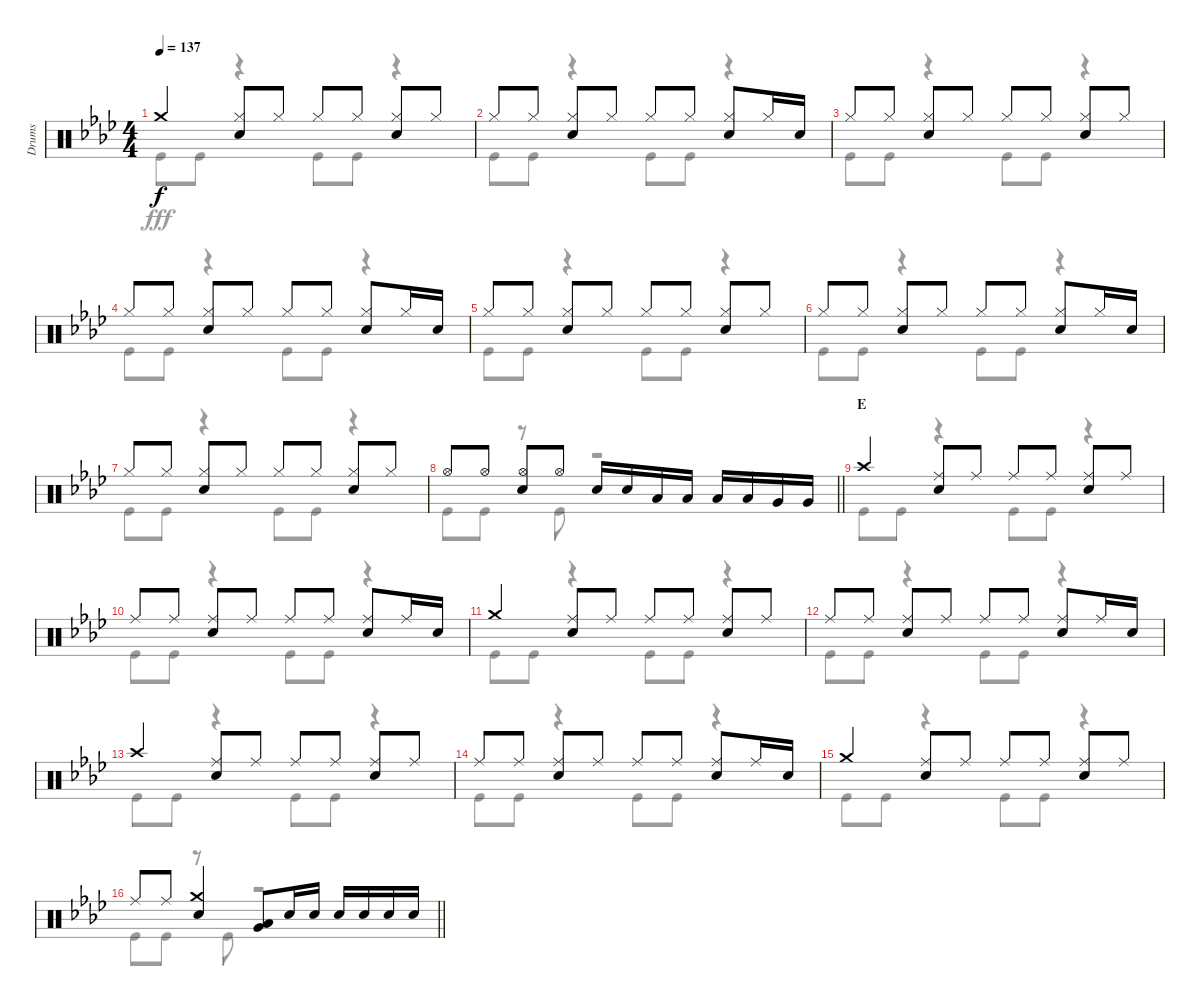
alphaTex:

\track ("Drums" "Drums") {instrument percussion}
\staff {score}
\articulation defaults
\voice
\ts (4 4)
\tempo 137
\clef neutral
\ks ab "Crash medium (hit)".4{dy f}
("Hi-Hat (closed)" "Snare (hit) 2").8 "Hi-Hat (closed)".8 "Hi-Hat (closed)".8 "Hi-Hat (closed)".8 ("Hi-Hat (closed)" "Snare (hit) 2").8 "Hi-Hat (closed)".8 |
"Hi-Hat (closed)".8 "Hi-Hat (closed)".8 ("Hi-Hat (closed)" "Snare (hit) 2").8 "Hi-Hat (closed)".8 "Hi-Hat (closed)".8 "Hi-Hat (closed)".8 ("Hi-Hat (closed)" "Snare (hit) 2").8 "Hi-Hat (closed)".16 "Snare (hit) 2".16 |
"Hi-Hat (closed)".8 "Hi-Hat (closed)".8 ("Hi-Hat (closed)" "Snare (hit) 2").8 "Hi-Hat (closed)".8 "Hi-Hat (closed)".8 "Hi-Hat (closed)".8 ("Hi-Hat (closed)" "Snare (hit) 2").8 "Hi-Hat (closed)".8 |
"Hi-Hat (closed)".8 "Hi-Hat (closed)".8 ("Hi-Hat (closed)" "Snare (hit) 2").8 "Hi-Hat (closed)".8 "Hi-Hat (closed)".8 "Hi-Hat (closed)".8 ("Hi-Hat (closed)" "Snare (hit) 2").8 "Hi-Hat (closed)".16 "Snare (hit) 2".16 |
"Hi-Hat (closed)".8 "Hi-Hat (closed)".8 ("Hi-Hat (closed)" "Snare (hit) 2").8 "Hi-Hat (closed)".8 "Hi-Hat (closed)".8 "Hi-Hat (closed)".8 ("Hi-Hat (closed)" "Snare (hit) 2").8 "Hi-Hat (closed)".8 |
"Hi-Hat (closed)".8 "Hi-Hat (closed)".8 ("Hi-Hat (closed)" "Snare (hit) 2").8 "Hi-Hat (closed)".8 "Hi-Hat (closed)".8 "Hi-Hat (closed)".8 ("Hi-Hat (closed)" "Snare (hit) 2").8 "Hi-Hat (closed)".16 "Snare (hit) 2".16 |
"Hi-Hat (closed)".8 "Hi-Hat (closed)".8 ("Hi-Hat (closed)" "Snare (hit) 2").8 "Hi-Hat (closed)".8 "Hi-Hat (closed)".8 "Hi-Hat (closed)".8 ("Hi-Hat (closed)" "Snare (hit) 2").8 "Hi-Hat (closed)".8 |
\barLineRight lightlight "Hi-Hat (open)".8 "Hi-Hat (open)".8
("Hi-Hat (open)" "Snare (hit) 2").8 "Hi-Hat (open)".8 "Snare (hit) 2".16 "Snare (hit) 2".16 "Low Tom (hit)".16 "Low Tom (hit)".16 "Low Tom (hit)".16 "Low Tom (hit)".16 "Very Low Tom (hit)".16 "Very Low Tom (hit)".16 |
\section ("" "E")
"Crash high (hit)".4 ("Ride (middle)" "Snare (hit) 2").8 "Ride (middle)".8 "Ride (middle)".8 "Ride (middle)".8 ("Ride (middle)" "Snare (hit) 2").8 "Ride (middle)".8 |
"Ride (middle)".8 "Ride (middle)".8 ("Ride (middle)" "Snare (hit) 2").8 "Ride (middle)".8 "Ride (middle)".8 "Ride (middle)".8 ("Ride (middle)" "Snare (hit) 2").8 "Ride (middle)".16 "Snare (hit) 2".16 |
"Crash medium (hit)".4 ("Ride (middle)" "Snare (hit) 2").8 "Ride (middle)".8 "Ride (middle)".8 "Ride (middle)".8 ("Ride (middle)" "Snare (hit) 2").8 "Ride (middle)".8 |
"Ride (middle)".8 "Ride (middle)".8 ("Ride (middle)" "Snare (hit) 2").8 "Ride (middle)".8 "Ride (middle)".8 "Ride (middle)".8 ("Ride (middle)" "Snare (hit) 2").8 "Ride (middle)".16 "Snare (hit) 2".16 |
"Crash high (hit)".4 ("Ride (middle)" "Snare (hit) 2").8 "Ride (middle)".8 "Ride (middle)".8 "Ride (middle)".8 ("Ride (middle)" "Snare (hit) 2").8 "Ride (middle)".8 |
"Ride (middle)".8 "Ride (middle)".8 ("Ride (middle)" "Snare (hit) 2").8 "Ride (middle)".8 "Ride (middle)".8 "Ride (middle)".8 ("Ride (middle)" "Snare (hit) 2").8 "Ride (middle)".16 "Snare (hit) 2".16 |
"Crash medium (hit)".4 ("Ride (middle)" "Snare (hit) 2").8 "Ride (middle)".8 "Ride (middle)".8 "Ride (middle)".8 ("Ride (middle)" "Snare (hit) 2").8 "Ride (middle)".8 |
\barLineRight lightlight "Ride (middle)".8 "Ride (middle)".8
("Crash medium (hit)" "Snare (hit) 2").4 ("Low Tom (hit)" "Very Low Tom (hit)").8 "Snare (hit) 2".16 "Snare (hit) 2".16 "Snare (hit) 2".16 "Snare (hit) 2".16 "Snare (hit) 2".16 "Snare (hit) 2".16
\voice
\clef neutral
\ottava regular
\simile none
\ks ab "Kick (hit)".8{dy fff} "Kick (hit)".8
r.4 "Kick (hit)".8 "Kick (hit)".8 r.4 |
"Kick (hit)".8 "Kick (hit)".8 r.4 "Kick (hit)".8 "Kick (hit)".8 r.4 |
"Kick (hit)".8 "Kick (hit)".8 r.4 "Kick (hit)".8 "Kick (hit)".8 r.4 |
"Kick (hit)".8 "Kick (hit)".8 r.4 "Kick (hit)".8 "Kick (hit)".8 r.4 |
"Kick (hit)".8 "Kick (hit)".8 r.4 "Kick (hit)".8 "Kick (hit)".8 r.4 |
"Kick (hit)".8 "Kick (hit)".8 r.4 "Kick (hit)".8 "Kick (hit)".8 r.4 |
"Kick (hit)".8 "Kick (hit)".8 r.4 "Kick (hit)".8 "Kick (hit)".8 r.4 |
\barLineRight lightlight "Kick (hit)".8 "Kick (hit)".8
r.8 "Kick (hit)".8 r.2 |
"Kick (hit)".8 "Kick (hit)".8 r.4 "Kick (hit)".8 "Kick (hit)".8 r.4 |
"Kick (hit)".8 "Kick (hit)".8 r.4 "Kick (hit)".8 "Kick (hit)".8 r.4 |
"Kick (hit)".8 "Kick (hit)".8 r.4 "Kick (hit)".8 "Kick (hit)".8 r.4 |
"Kick (hit)".8 "Kick (hit)".8 r.4 "Kick (hit)".8 "Kick (hit)".8 r.4 |
"Kick (hit)".8 "Kick (hit)".8 r.4 "Kick (hit)".8 "Kick (hit)".8 r.4 |
"Kick (hit)".8 "Kick (hit)".8 r.4 "Kick (hit)".8 "Kick (hit)".8 r.4 |
"Kick (hit)".8 "Kick (hit)".8 r.4 "Kick (hit)".8 "Kick (hit)".8 r.4 |
\barLineRight lightlight "Kick (hit)".8 "Kick (hit)".8
r.8 "Kick (hit)".8 r.2
